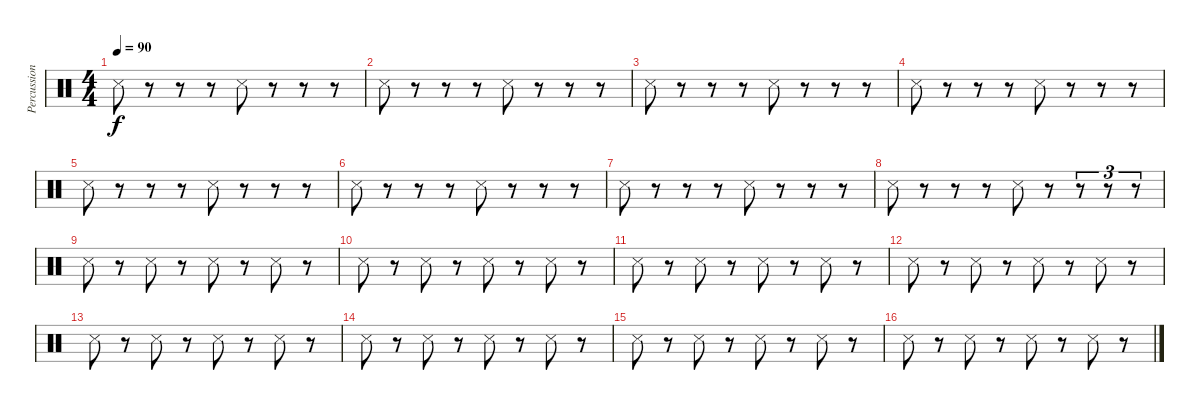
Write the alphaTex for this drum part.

\track ("Percussions" "Percussion") {instrument percussion}
\staff {score}
\articulation defaults
\ts (4 4)
\tempo 90
\clef neutral
\ks c "Metronome (hit)".8{dy f}
r.8 r.8 r.8 "Metronome (hit)".8 r.8 r.8 r.8 |
"Metronome (hit)".8 r.8 r.8 r.8 "Metronome (hit)".8 r.8 r.8 r.8 |
"Metronome (hit)".8 r.8 r.8 r.8 "Metronome (hit)".8 r.8 r.8 r.8 |
"Metronome (hit)".8 r.8 r.8 r.8 "Metronome (hit)".8 r.8 r.8 r.8 |
"Metronome (hit)".8 r.8 r.8 r.8 "Metronome (hit)".8 r.8 r.8 r.8 |
"Metronome (hit)".8 r.8 r.8 r.8 "Metronome (hit)".8 r.8 r.8 r.8 |
"Metronome (hit)".8 r.8 r.8 r.8 "Metronome (hit)".8 r.8 r.8 r.8 |
"Metronome (hit)".8 r.8 r.8 r.8 "Metronome (hit)".8 r.8 r.8{tu (3 2)} r.8{tu (3 2)} r.8{tu (3 2)} |
"Metronome (hit)".8 r.8 "Metronome (hit)".8 r.8 "Metronome (hit)".8 r.8 "Metronome (hit)".8 r.8 |
"Metronome (hit)".8 r.8 "Metronome (hit)".8 r.8 "Metronome (hit)".8 r.8 "Metronome (hit)".8 r.8 |
"Metronome (hit)".8 r.8 "Metronome (hit)".8 r.8 "Metronome (hit)".8 r.8 "Metronome (hit)".8 r.8 |
"Metronome (hit)".8 r.8 "Metronome (hit)".8 r.8 "Metronome (hit)".8 r.8 "Metronome (hit)".8 r.8 |
"Metronome (hit)".8 r.8 "Metronome (hit)".8 r.8 "Metronome (hit)".8 r.8 "Metronome (hit)".8 r.8 |
"Metronome (hit)".8 r.8 "Metronome (hit)".8 r.8 "Metronome (hit)".8 r.8 "Metronome (hit)".8 r.8 |
"Metronome (hit)".8 r.8 "Metronome (hit)".8 r.8 "Metronome (hit)".8 r.8 "Metronome (hit)".8 r.8 |
"Metronome (hit)".8 r.8 "Metronome (hit)".8 r.8 "Metronome (hit)".8 r.8 "Metronome (hit)".8 r.8
